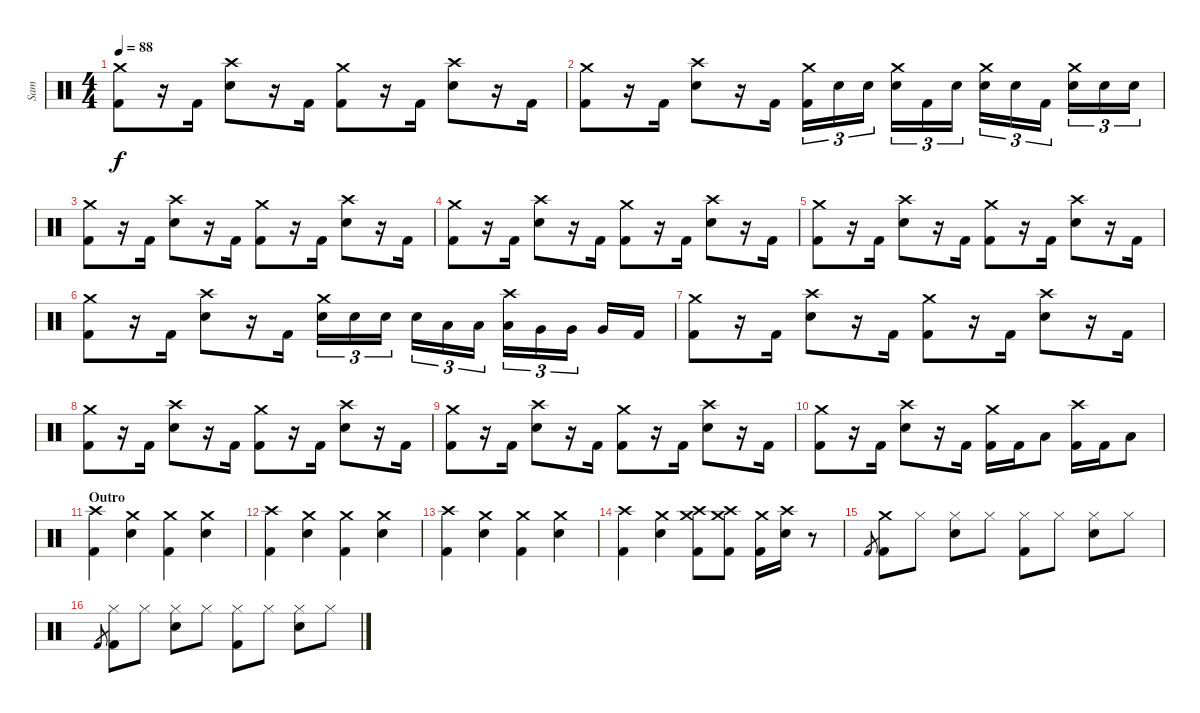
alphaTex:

\track ("Sam" "Sam") {instrument percussion}
\staff {score}
\articulation defaults
\ts (4 4)
\tempo 88
\clef neutral
\ks c
("Crash medium (hit)" "Kick (hit) 2").8{dy f} r.16 "Kick (hit) 2".16 ("Crash high (hit)" "Electric Snare (hit)").8 r.16 "Kick (hit) 2".16 ("Crash medium (hit)" "Kick (hit) 2").8 r.16 "Kick (hit) 2".16 ("Crash high (hit)" "Electric Snare (hit)").8 r.16 "Kick (hit) 2".16 |
("Crash medium (hit)" "Kick (hit) 2").8 r.16 "Kick (hit) 2".16 ("Crash high (hit)" "Electric Snare (hit)").8 r.16 "Kick (hit) 2".16 ("Crash medium (hit)" "Kick (hit) 2").16{tu (3 2)} "Electric Snare (hit)".16{tu (3 2)} "Electric Snare (hit)".16{tu (3 2)} ("Crash medium (hit)" "Electric Snare (hit)").16{tu (3 2)} "Kick (hit) 2".16{tu (3 2)} "Electric Snare (hit)".16{tu (3 2)} ("Crash medium (hit)" "Electric Snare (hit)").16{tu (3 2)} "Electric Snare (hit)".16{tu (3 2)} "Kick (hit) 2".16{tu (3 2)} ("Crash medium (hit)" "Electric Snare (hit)").16{tu (3 2)} "Electric Snare (hit)".16{tu (3 2)} "Electric Snare (hit)".16{tu (3 2)} |
("Crash medium (hit)" "Kick (hit) 2").8 r.16 "Kick (hit) 2".16 ("Crash high (hit)" "Electric Snare (hit)").8 r.16 "Kick (hit) 2".16 ("Crash medium (hit)" "Kick (hit) 2").8 r.16 "Kick (hit) 2".16 ("Crash high (hit)" "Electric Snare (hit)").8 r.16 "Kick (hit) 2".16 |
("Crash medium (hit)" "Kick (hit) 2").8 r.16 "Kick (hit) 2".16 ("Crash high (hit)" "Electric Snare (hit)").8 r.16 "Kick (hit) 2".16 ("Crash medium (hit)" "Kick (hit) 2").8 r.16 "Kick (hit) 2".16 ("Crash high (hit)" "Electric Snare (hit)").8 r.16 "Kick (hit) 2".16 |
("Crash medium (hit)" "Kick (hit) 2").8 r.16 "Kick (hit) 2".16 ("Crash high (hit)" "Electric Snare (hit)").8 r.16 "Kick (hit) 2".16 ("Crash medium (hit)" "Kick (hit) 2").8 r.16 "Kick (hit) 2".16 ("Crash high (hit)" "Electric Snare (hit)").8 r.16 "Kick (hit) 2".16 |
("Crash medium (hit)" "Kick (hit) 2").8 r.16 "Kick (hit) 2".16 ("Crash high (hit)" "Electric Snare (hit)").8 r.16 "Kick (hit) 2".16 ("Crash medium (hit)" "Electric Snare (hit)").16{tu (3 2)} "Electric Snare (hit)".16{tu (3 2)} "Electric Snare (hit)".16{tu (3 2)} "Electric Snare (hit)".16{tu (3 2)} "Low Tom (hit)".16{tu (3 2)} "Low Tom (hit)".16{tu (3 2)} ("Crash high (hit)" "Low Tom (hit)").16{tu (3 2)} "Very Low Tom (hit)".16{tu (3 2)} "Very Low Tom (hit)".16{tu (3 2)} "Very Low Tom (hit)".16 "Kick (hit) 2".16 |
("Crash medium (hit)" "Kick (hit) 2").8 r.16 "Kick (hit) 2".16 ("Crash high (hit)" "Electric Snare (hit)").8 r.16 "Kick (hit) 2".16 ("Crash medium (hit)" "Kick (hit) 2").8 r.16 "Kick (hit) 2".16 ("Crash high (hit)" "Electric Snare (hit)").8 r.16 "Kick (hit) 2".16 |
("Crash medium (hit)" "Kick (hit) 2").8 r.16 "Kick (hit) 2".16 ("Crash high (hit)" "Electric Snare (hit)").8 r.16 "Kick (hit) 2".16 ("Crash medium (hit)" "Kick (hit) 2").8 r.16 "Kick (hit) 2".16 ("Crash high (hit)" "Electric Snare (hit)").8 r.16 "Kick (hit) 2".16 |
("Crash medium (hit)" "Kick (hit) 2").8 r.16 "Kick (hit) 2".16 ("Crash high (hit)" "Electric Snare (hit)").8 r.16 "Kick (hit) 2".16 ("Crash medium (hit)" "Kick (hit) 2").8 r.16 "Kick (hit) 2".16 ("Crash high (hit)" "Electric Snare (hit)").8 r.16 "Kick (hit) 2".16 |
("Crash medium (hit)" "Kick (hit) 2").8 r.16 "Kick (hit) 2".16 ("Crash high (hit)" "Electric Snare (hit)").8 r.16 "Kick (hit) 2".16 ("Crash medium (hit)" "Kick (hit) 2").16 "Kick (hit) 2".16 "Low Tom (hit)".8 ("Crash high (hit)" "Kick (hit) 2").16 "Kick (hit) 2".16 "Low Tom (hit)".8 |
\section ("" "Outro")
("Crash high (hit)" "Kick (hit) 2").4 ("Crash medium (hit)" "Electric Snare (hit)").4 ("Crash medium (hit)" "Kick (hit) 2").4 ("Crash medium (hit)" "Electric Snare (hit)").4 |
("Crash high (hit)" "Kick (hit) 2").4 ("Crash medium (hit)" "Electric Snare (hit)").4 ("Crash medium (hit)" "Kick (hit) 2").4 ("Crash medium (hit)" "Electric Snare (hit)").4 |
("Crash high (hit)" "Kick (hit) 2").4 ("Crash medium (hit)" "Electric Snare (hit)").4 ("Crash medium (hit)" "Kick (hit) 2").4 ("Crash medium (hit)" "Electric Snare (hit)").4 |
("Crash high (hit)" "Kick (hit) 2").4 ("Crash medium (hit)" "Electric Snare (hit)").4 ("Crash high (hit)" "Crash medium (hit)" "Kick (hit) 2").8 ("Crash high (hit)" "Crash medium (hit)" "Kick (hit) 2").8 ("Crash medium (hit)" "Kick (hit) 2").16 ("Crash high (hit)" "Electric Snare (hit)").16 r.8 |
"Kick (hit) 2".8{gr} ("Crash medium (hit)" "Kick (hit) 2").8 "Hi-Hat (closed)".8 ("Hi-Hat (closed)" "Electric Snare (hit)").8 "Hi-Hat (closed)".8 ("Hi-Hat (closed)" "Kick (hit) 2").8 "Hi-Hat (closed)".8 ("Hi-Hat (closed)" "Electric Snare (hit)").8 "Hi-Hat (closed)".8 |
"Kick (hit) 2".8{gr} ("Hi-Hat (closed)" "Kick (hit) 2").8 "Hi-Hat (closed)".8 ("Hi-Hat (closed)" "Electric Snare (hit)").8 "Hi-Hat (closed)".8 ("Hi-Hat (closed)" "Kick (hit) 2").8 "Hi-Hat (closed)".8 ("Hi-Hat (closed)" "Electric Snare (hit)").8 "Hi-Hat (closed)".8
